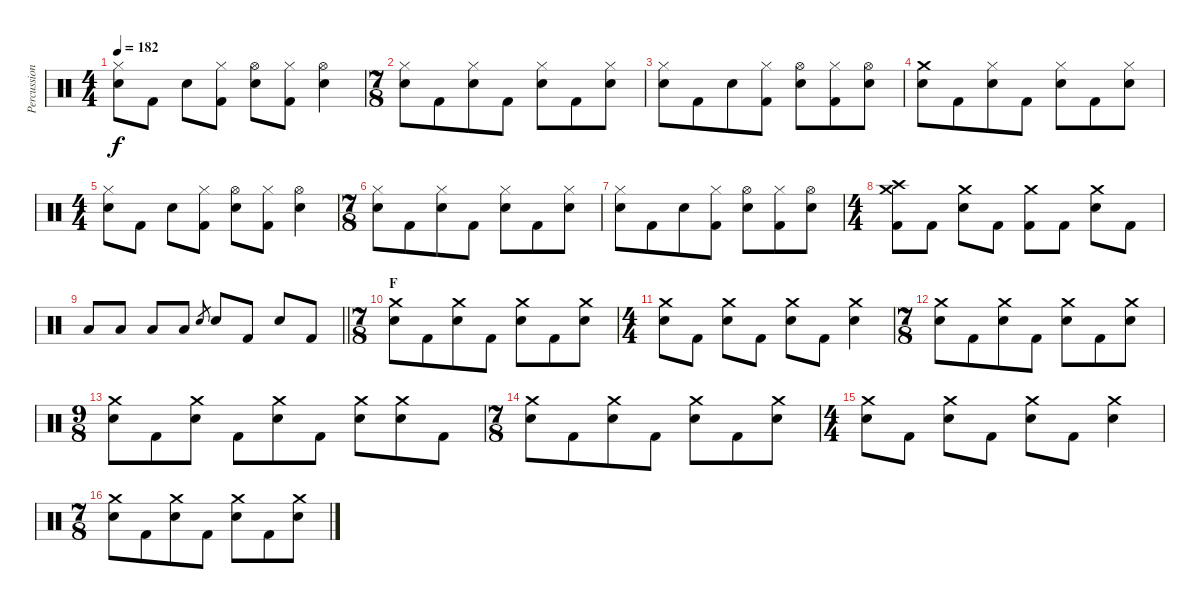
\track ("Percussion" "Percussion") {instrument percussion}
\staff {score}
\articulation defaults
\ts (4 4)
\tempo 182
\clef neutral
\ks c
("Hi-Hat (closed)" "Electric Snare (hit)").8{dy f} "Kick (hit) 2".8 "Electric Snare (hit)".8 ("Hi-Hat (closed)" "Kick (hit) 2").8 ("Hi-Hat (open)" "Electric Snare (hit)").8 ("Hi-Hat (closed)" "Kick (hit) 2").8 ("Hi-Hat (open)" "Electric Snare (hit)").4 |
\ts (7 8)
("Hi-Hat (closed)" "Electric Snare (hit)").8 "Kick (hit) 2".8 ("Hi-Hat (closed)" "Electric Snare (hit)").8 "Kick (hit) 2".8 ("Hi-Hat (closed)" "Electric Snare (hit)").8 "Kick (hit) 2".8 ("Hi-Hat (closed)" "Electric Snare (hit)").8 |
("Hi-Hat (closed)" "Electric Snare (hit)").8 "Kick (hit) 2".8 "Electric Snare (hit)".8 ("Hi-Hat (closed)" "Kick (hit) 2").8 ("Hi-Hat (open)" "Electric Snare (hit)").8 ("Hi-Hat (closed)" "Kick (hit) 2").8 ("Hi-Hat (open)" "Electric Snare (hit)").8 |
("Crash medium (hit)" "Electric Snare (hit)").8 "Kick (hit) 2".8 ("Hi-Hat (closed)" "Electric Snare (hit)").8 "Kick (hit) 2".8 ("Hi-Hat (closed)" "Electric Snare (hit)").8 "Kick (hit) 2".8 ("Hi-Hat (closed)" "Electric Snare (hit)").8 |
\ts (4 4)
("Hi-Hat (closed)" "Electric Snare (hit)").8 "Kick (hit) 2".8 "Electric Snare (hit)".8 ("Hi-Hat (closed)" "Kick (hit) 2").8 ("Hi-Hat (open)" "Electric Snare (hit)").8 ("Hi-Hat (closed)" "Kick (hit) 2").8 ("Hi-Hat (open)" "Electric Snare (hit)").4 |
\ts (7 8)
("Hi-Hat (closed)" "Electric Snare (hit)").8 "Kick (hit) 2".8 ("Hi-Hat (closed)" "Electric Snare (hit)").8 "Kick (hit) 2".8 ("Hi-Hat (closed)" "Electric Snare (hit)").8 "Kick (hit) 2".8 ("Hi-Hat (closed)" "Electric Snare (hit)").8 |
("Hi-Hat (closed)" "Electric Snare (hit)").8 "Kick (hit) 2".8 "Electric Snare (hit)".8 ("Hi-Hat (closed)" "Kick (hit) 2").8 ("Hi-Hat (open)" "Electric Snare (hit)").8 ("Hi-Hat (closed)" "Kick (hit) 2").8 ("Hi-Hat (open)" "Electric Snare (hit)").8 |
\ts (4 4)
("Crash medium (hit)" "Crash high (hit)" "Kick (hit) 2").8 "Kick (hit) 2".8 ("Crash medium (hit)" "Electric Snare (hit)").8 "Kick (hit) 2".8 ("Crash medium (hit)" "Kick (hit) 2").8 "Kick (hit) 2".8 ("Crash medium (hit)" "Electric Snare (hit)").8 "Kick (hit) 2".8 |
\barLineRight lightlight "Low Floor Tom (hit)".8 "Low Floor Tom (hit)".8 "Low Floor Tom (hit)".8 "Low Floor Tom (hit)".8 "Electric Snare (hit)".8{gr} "Electric Snare (hit)".8 "Kick (hit) 2".8 "Electric Snare (hit)".8 "Kick (hit) 2".8
|
\ts (7 8)
\section ("" "F")
("Crash medium (hit)" "Electric Snare (hit)").8 "Kick (hit) 2".8 ("Crash medium (hit)" "Electric Snare (hit)").8 "Kick (hit) 2".8 ("Crash medium (hit)" "Electric Snare (hit)").8 "Kick (hit) 2".8 ("Crash medium (hit)" "Electric Snare (hit)").8 |
\ts (4 4)
("Crash medium (hit)" "Electric Snare (hit)").8 "Kick (hit) 2".8 ("Crash medium (hit)" "Electric Snare (hit)").8 "Kick (hit) 2".8 ("Crash medium (hit)" "Electric Snare (hit)").8 "Kick (hit) 2".8 ("Crash medium (hit)" "Electric Snare (hit)").4 |
\ts (7 8)
("Crash medium (hit)" "Electric Snare (hit)").8 "Kick (hit) 2".8 ("Crash medium (hit)" "Electric Snare (hit)").8 "Kick (hit) 2".8 ("Crash medium (hit)" "Electric Snare (hit)").8 "Kick (hit) 2".8 ("Crash medium (hit)" "Electric Snare (hit)").8 |
\ts (9 8)
("Crash medium (hit)" "Electric Snare (hit)").8 "Kick (hit) 2".8 ("Crash medium (hit)" "Electric Snare (hit)").8 "Kick (hit) 2".8 ("Crash medium (hit)" "Electric Snare (hit)").8 "Kick (hit) 2".8 ("Crash medium (hit)" "Electric Snare (hit)").8 ("Crash medium (hit)" "Electric Snare (hit)").8 "Kick (hit) 2".8 |
\ts (7 8)
("Crash medium (hit)" "Electric Snare (hit)").8 "Kick (hit) 2".8 ("Crash medium (hit)" "Electric Snare (hit)").8 "Kick (hit) 2".8 ("Crash medium (hit)" "Electric Snare (hit)").8 "Kick (hit) 2".8 ("Crash medium (hit)" "Electric Snare (hit)").8 |
\ts (4 4)
("Crash medium (hit)" "Electric Snare (hit)").8 "Kick (hit) 2".8 ("Crash medium (hit)" "Electric Snare (hit)").8 "Kick (hit) 2".8 ("Crash medium (hit)" "Electric Snare (hit)").8 "Kick (hit) 2".8 ("Crash medium (hit)" "Electric Snare (hit)").4 |
\ts (7 8)
("Crash medium (hit)" "Electric Snare (hit)").8 "Kick (hit) 2".8 ("Crash medium (hit)" "Electric Snare (hit)").8 "Kick (hit) 2".8 ("Crash medium (hit)" "Electric Snare (hit)").8 "Kick (hit) 2".8 ("Crash medium (hit)" "Electric Snare (hit)").8
